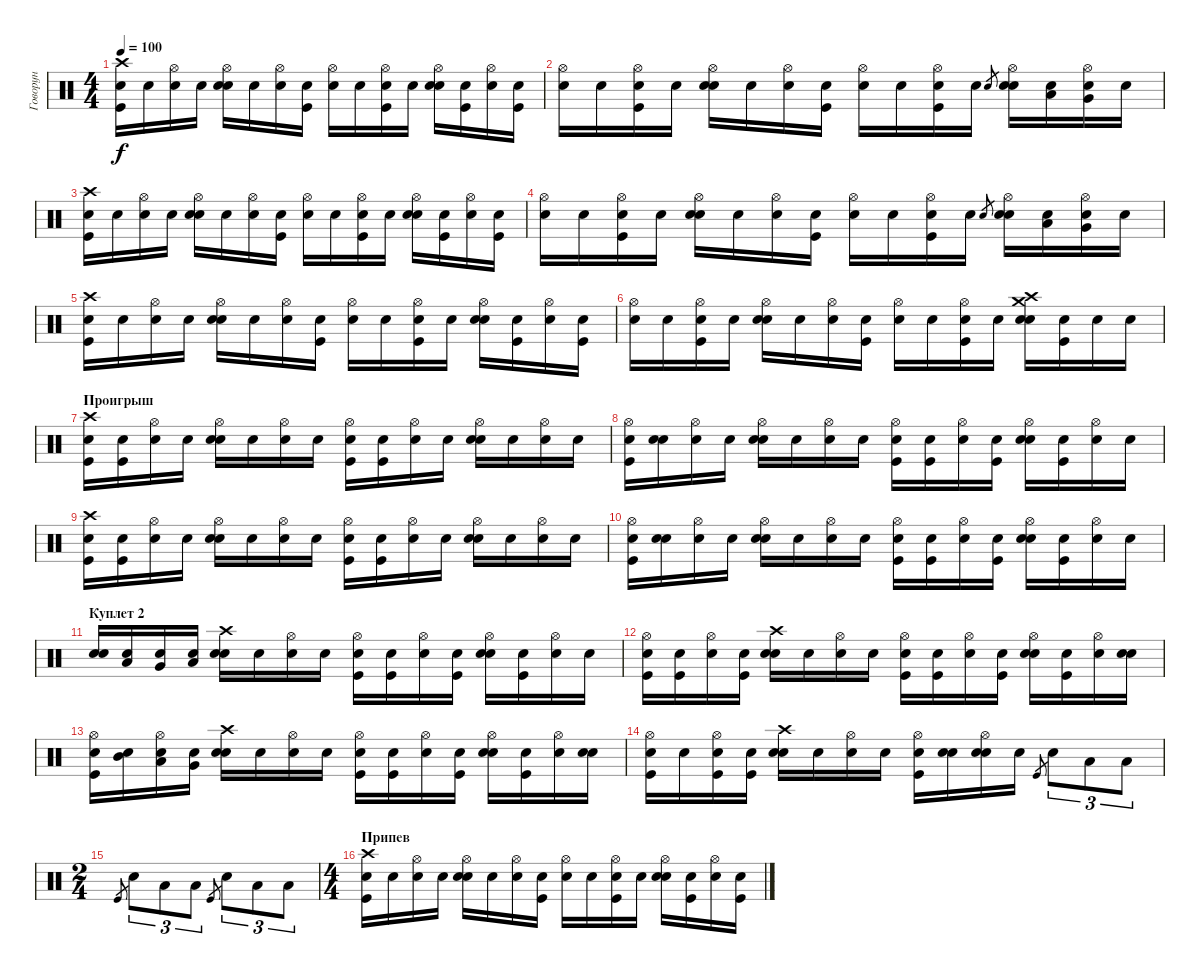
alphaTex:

\track ("Говорун" "Говорун") {instrument percussion}
\staff {score}
\articulation defaults
\ts (4 4)
\tempo 100
\clef neutral
\ks c
("Kick (hit)" "Crash high (hit)" "Snare (hit)"{x}).16{dy f} "Snare (hit)"{x}.16 ("Hi-Hat (open)" "Snare (hit)"{x}).16 "Snare (hit)"{x}.16 ("Snare (hit) 2" "Hi-Hat (open)" "Snare (hit)"{x}).16 "Snare (hit)"{x}.16 ("Hi-Hat (open)" "Snare (hit)"{x}).16 ("Kick (hit)" "Snare (hit)"{x}).16 ("Hi-Hat (open)" "Snare (hit)"{x}).16 "Snare (hit)"{x}.16 ("Kick (hit)" "Hi-Hat (open)" "Snare (hit)"{x}).16 "Snare (hit)"{x}.16 ("Snare (hit) 2" "Hi-Hat (open)" "Snare (hit)"{x}).16 ("Kick (hit)" "Snare (hit)"{x}).16 ("Hi-Hat (open)" "Snare (hit)"{x}).16 ("Kick (hit)" "Snare (hit)"{x}).16 |
("Hi-Hat (open)" "Snare (hit)"{x}).16 "Snare (hit)"{x}.16 ("Kick (hit)" "Hi-Hat (open)" "Snare (hit)"{x}).16 "Snare (hit)"{x}.16 ("Snare (hit) 2" "Hi-Hat (open)" "Snare (hit)"{x}).16 "Snare (hit)"{x}.16 ("Hi-Hat (open)" "Snare (hit)"{x}).16 ("Kick (hit)" "Snare (hit)"{x}).16 ("Hi-Hat (open)" "Snare (hit)"{x}).16 "Snare (hit)"{x}.16 ("Kick (hit)" "Hi-Hat (open)" "Snare (hit)"{x}).16 "Snare (hit)"{x}.16 "Snare (hit) 2".8{gr} ("Snare (hit) 2" "Hi-Hat (open)" "Snare (hit)"{x}).16 ("Low Tom (hit)" "Snare (hit)"{x}).16 ("Very Low Tom (hit)" "Hi-Hat (open)" "Snare (hit)"{x}).16 "Snare (hit)"{x}.16 |
("Kick (hit)" "Crash high (hit)" "Snare (hit)"{x}).16 "Snare (hit)"{x}.16 ("Hi-Hat (open)" "Snare (hit)"{x}).16 "Snare (hit)"{x}.16 ("Snare (hit) 2" "Hi-Hat (open)" "Snare (hit)"{x}).16 "Snare (hit)"{x}.16 ("Hi-Hat (open)" "Snare (hit)"{x}).16 ("Kick (hit)" "Snare (hit)"{x}).16 ("Hi-Hat (open)" "Snare (hit)"{x}).16 "Snare (hit)"{x}.16 ("Kick (hit)" "Hi-Hat (open)" "Snare (hit)"{x}).16 "Snare (hit)"{x}.16 ("Snare (hit) 2" "Hi-Hat (open)" "Snare (hit)"{x}).16 ("Kick (hit)" "Snare (hit)"{x}).16 ("Hi-Hat (open)" "Snare (hit)"{x}).16 ("Kick (hit)" "Snare (hit)"{x}).16 |
("Hi-Hat (open)" "Snare (hit)"{x}).16 "Snare (hit)"{x}.16 ("Kick (hit)" "Hi-Hat (open)" "Snare (hit)"{x}).16 "Snare (hit)"{x}.16 ("Snare (hit) 2" "Hi-Hat (open)" "Snare (hit)"{x}).16 "Snare (hit)"{x}.16 ("Hi-Hat (open)" "Snare (hit)"{x}).16 ("Kick (hit)" "Snare (hit)"{x}).16 ("Hi-Hat (open)" "Snare (hit)"{x}).16 "Snare (hit)"{x}.16 ("Kick (hit)" "Hi-Hat (open)" "Snare (hit)"{x}).16 "Snare (hit)"{x}.16 "Snare (hit) 2".8{gr} ("Snare (hit) 2" "Hi-Hat (open)" "Snare (hit)"{x}).16 ("Low Tom (hit)" "Snare (hit)"{x}).16 ("Very Low Tom (hit)" "Hi-Hat (open)" "Snare (hit)"{x}).16 "Snare (hit)"{x}.16 |
("Kick (hit)" "Crash high (hit)" "Snare (hit)"{x}).16 "Snare (hit)"{x}.16 ("Hi-Hat (open)" "Snare (hit)"{x}).16 "Snare (hit)"{x}.16 ("Snare (hit) 2" "Hi-Hat (open)" "Snare (hit)"{x}).16 "Snare (hit)"{x}.16 ("Hi-Hat (open)" "Snare (hit)"{x}).16 ("Kick (hit)" "Snare (hit)"{x}).16 ("Hi-Hat (open)" "Snare (hit)"{x}).16 "Snare (hit)"{x}.16 ("Kick (hit)" "Hi-Hat (open)" "Snare (hit)"{x}).16 "Snare (hit)"{x}.16 ("Snare (hit) 2" "Hi-Hat (open)" "Snare (hit)"{x}).16 ("Kick (hit)" "Snare (hit)"{x}).16 ("Hi-Hat (open)" "Snare (hit)"{x}).16 ("Kick (hit)" "Snare (hit)"{x}).16 |
("Hi-Hat (open)" "Snare (hit)"{x}).16 "Snare (hit)"{x}.16 ("Kick (hit)" "Hi-Hat (open)" "Snare (hit)"{x}).16 "Snare (hit)"{x}.16 ("Snare (hit) 2" "Hi-Hat (open)" "Snare (hit)"{x}).16 "Snare (hit)"{x}.16 ("Hi-Hat (open)" "Snare (hit)"{x}).16 ("Kick (hit)" "Snare (hit)"{x}).16 ("Hi-Hat (open)" "Snare (hit)"{x}).16 "Snare (hit)"{x}.16 ("Kick (hit)" "Hi-Hat (open)" "Snare (hit)"{x}).16 "Snare (hit)"{x}.16 ("Snare (hit) 2" "Crash medium (hit)" "Crash high (hit)" "Snare (hit)"{x}).16 ("Kick (hit)" "Snare (hit)"{x}).16 "Snare (hit)"{x}.16 "Snare (hit)"{x}.16 |
\section ("" "Проигрыш")
("Kick (hit)" "Crash high (hit)" "Snare (hit)"{x}).16 ("Kick (hit)" "Snare (hit)"{x}).16 ("Hi-Hat (open)" "Snare (hit)"{x}).16 "Snare (hit)"{x}.16 ("Snare (hit) 2" "Hi-Hat (open)" "Snare (hit)"{x}).16 "Snare (hit)"{x}.16 ("Hi-Hat (open)" "Snare (hit)"{x}).16 "Snare (hit)"{x}.16 ("Kick (hit)" "Hi-Hat (open)" "Snare (hit)"{x}).16 ("Kick (hit)" "Snare (hit)"{x}).16 ("Hi-Hat (open)" "Snare (hit)"{x}).16 "Snare (hit)"{x}.16 ("Snare (hit) 2" "Hi-Hat (open)" "Snare (hit)"{x}).16 "Snare (hit)"{x}.16 ("Hi-Hat (open)" "Snare (hit)"{x}).16 "Snare (hit)"{x}.16 |
("Kick (hit)" "Hi-Hat (open)" "Snare (hit)"{x}).16 ("Snare (hit) 2" "Snare (hit)"{x}).16 ("Hi-Hat (open)" "Snare (hit)"{x}).16 "Snare (hit)"{x}.16 ("Snare (hit) 2" "Hi-Hat (open)" "Snare (hit)"{x}).16 "Snare (hit)"{x}.16 ("Hi-Hat (open)" "Snare (hit)"{x}).16 "Snare (hit)"{x}.16 ("Kick (hit)" "Hi-Hat (open)" "Snare (hit)"{x}).16 ("Kick (hit)" "Snare (hit)"{x}).16 ("Hi-Hat (open)" "Snare (hit)"{x}).16 ("Kick (hit)" "Snare (hit)"{x}).16 ("Snare (hit) 2" "Hi-Hat (open)" "Snare (hit)"{x}).16 ("Kick (hit)" "Snare (hit)"{x}).16 ("Hi-Hat (open)" "Snare (hit)"{x}).16 "Snare (hit)"{x}.16 |
("Kick (hit)" "Crash high (hit)" "Snare (hit)"{x}).16 ("Kick (hit)" "Snare (hit)"{x}).16 ("Hi-Hat (open)" "Snare (hit)"{x}).16 "Snare (hit)"{x}.16 ("Snare (hit) 2" "Hi-Hat (open)" "Snare (hit)"{x}).16 "Snare (hit)"{x}.16 ("Hi-Hat (open)" "Snare (hit)"{x}).16 "Snare (hit)"{x}.16 ("Kick (hit)" "Hi-Hat (open)" "Snare (hit)"{x}).16 ("Kick (hit)" "Snare (hit)"{x}).16 ("Hi-Hat (open)" "Snare (hit)"{x}).16 "Snare (hit)"{x}.16 ("Snare (hit) 2" "Hi-Hat (open)" "Snare (hit)"{x}).16 "Snare (hit)"{x}.16 ("Hi-Hat (open)" "Snare (hit)"{x}).16 "Snare (hit)"{x}.16 |
("Kick (hit)" "Hi-Hat (open)" "Snare (hit)"{x}).16 ("Snare (hit) 2" "Snare (hit)"{x}).16 ("Hi-Hat (open)" "Snare (hit)"{x}).16 "Snare (hit)"{x}.16 ("Snare (hit) 2" "Hi-Hat (open)" "Snare (hit)"{x}).16 "Snare (hit)"{x}.16 ("Hi-Hat (open)" "Snare (hit)"{x}).16 "Snare (hit)"{x}.16 ("Kick (hit)" "Hi-Hat (open)" "Snare (hit)"{x}).16 ("Kick (hit)" "Snare (hit)"{x}).16 ("Hi-Hat (open)" "Snare (hit)"{x}).16 ("Kick (hit)" "Snare (hit)"{x}).16 ("Snare (hit) 2" "Hi-Hat (open)" "Snare (hit)"{x}).16 ("Kick (hit)" "Snare (hit)"{x}).16 ("Hi-Hat (open)" "Snare (hit)"{x}).16 "Snare (hit)"{x}.16 |
\section ("" "Куплет 2")
("Snare (hit) 2" "Snare (hit)"{x}).16 ("Low Tom (hit)" "Snare (hit)"{x}).16 ("Very Low Tom (hit)" "Snare (hit)"{x}).16 ("Low Floor Tom (hit)" "Snare (hit)"{x}).16 ("Crash high (hit)" "Snare (hit) 2" "Snare (hit)"{x}).16 "Snare (hit)"{x}.16 ("Hi-Hat (open)" "Snare (hit)"{x}).16 "Snare (hit)"{x}.16 ("Kick (hit)" "Hi-Hat (open)" "Snare (hit)"{x}).16 ("Kick (hit)" "Snare (hit)"{x}).16 ("Hi-Hat (open)" "Snare (hit)"{x}).16 ("Kick (hit)" "Snare (hit)"{x}).16 ("Snare (hit) 2" "Hi-Hat (open)" "Snare (hit)"{x}).16 ("Kick (hit)" "Snare (hit)"{x}).16 ("Hi-Hat (open)" "Snare (hit)"{x}).16 "Snare (hit)"{x}.16 |
("Kick (hit)" "Hi-Hat (open)" "Snare (hit)"{x}).16 ("Kick (hit)" "Snare (hit)"{x}).16 ("Hi-Hat (open)" "Snare (hit)"{x}).16 ("Kick (hit)" "Snare (hit)"{x}).16 ("Crash high (hit)" "Snare (hit) 2" "Snare (hit)"{x}).16 "Snare (hit)"{x}.16 ("Hi-Hat (open)" "Snare (hit)"{x}).16 "Snare (hit)"{x}.16 ("Kick (hit)" "Hi-Hat (open)" "Snare (hit)"{x}).16 ("Kick (hit)" "Snare (hit)"{x}).16 ("Hi-Hat (open)" "Snare (hit)"{x}).16 ("Kick (hit)" "Snare (hit)"{x}).16 ("Snare (hit) 2" "Hi-Hat (open)" "Snare (hit)"{x}).16 ("Kick (hit)" "Snare (hit)"{x}).16 ("Hi-Hat (open)" "Snare (hit)"{x}).16 ("Snare (hit) 2" "Snare (hit)"{x}).16 |
("Kick (hit)" "Hi-Hat (open)" "Snare (hit)"{x}).16 ("Mid Tom (hit)" "Snare (hit)"{x}).16 ("Low Tom (hit)" "Hi-Hat (open)" "Snare (hit)"{x}).16 ("Very Low Tom (hit)" "Snare (hit)"{x}).16 ("Crash high (hit)" "Snare (hit) 2" "Snare (hit)"{x}).16 "Snare (hit)"{x}.16 ("Hi-Hat (open)" "Snare (hit)"{x}).16 "Snare (hit)"{x}.16 ("Kick (hit)" "Hi-Hat (open)" "Snare (hit)"{x}).16 ("Kick (hit)" "Snare (hit)"{x}).16 ("Hi-Hat (open)" "Snare (hit)"{x}).16 ("Kick (hit)" "Snare (hit)"{x}).16 ("Snare (hit) 2" "Hi-Hat (open)" "Snare (hit)"{x}).16 ("Kick (hit)" "Snare (hit)"{x}).16 ("Hi-Hat (open)" "Snare (hit)"{x}).16 ("Snare (hit) 2" "Snare (hit)"{x}).16 |
("Kick (hit)" "Hi-Hat (open)" "Snare (hit)"{x}).16 "Snare (hit)"{x}.16 ("Kick (hit)" "Hi-Hat (open)" "Snare (hit)"{x}).16 ("Kick (hit)" "Snare (hit)"{x}).16 ("Crash high (hit)" "Snare (hit) 2" "Snare (hit)"{x}).16 "Snare (hit)"{x}.16 ("Hi-Hat (open)" "Snare (hit)"{x}).16 "Snare (hit)"{x}.16 ("Kick (hit)" "Hi-Hat (open)" "Snare (hit)"{x}).16 ("Snare (hit) 2" "Snare (hit)"{x}).16 ("Snare (hit) 2" "Hi-Hat (open)" "Snare (hit)"{x}).16 "Snare (hit)"{x}.16 "Kick (hit)".8{gr} "Snare (hit) 2".8{tu (3 2)} "Low Tom (hit)".8{tu (3 2)} "Low Tom (hit)".8{tu (3 2)} |
\ts (2 4)
"Kick (hit)".8{gr} "Snare (hit) 2".8{tu (3 2)} "Low Tom (hit)".8{tu (3 2)} "Low Tom (hit)".8{tu (3 2)} "Kick (hit)".8{gr} "Snare (hit) 2".8{tu (3 2)} "Low Tom (hit)".8{tu (3 2)} "Low Tom (hit)".8{tu (3 2)} |
\ts (4 4)
\section ("" "Припев")
("Kick (hit)" "Crash high (hit)" "Snare (hit)"{x}).16 "Snare (hit)"{x}.16 ("Hi-Hat (open)" "Snare (hit)"{x}).16 "Snare (hit)"{x}.16 ("Snare (hit) 2" "Hi-Hat (open)" "Snare (hit)"{x}).16 "Snare (hit)"{x}.16 ("Hi-Hat (open)" "Snare (hit)"{x}).16 ("Kick (hit)" "Snare (hit)"{x}).16 ("Hi-Hat (open)" "Snare (hit)"{x}).16 "Snare (hit)"{x}.16 ("Kick (hit)" "Hi-Hat (open)" "Snare (hit)"{x}).16 "Snare (hit)"{x}.16 ("Snare (hit) 2" "Hi-Hat (open)" "Snare (hit)"{x}).16 ("Kick (hit)" "Snare (hit)"{x}).16 ("Hi-Hat (open)" "Snare (hit)"{x}).16 ("Kick (hit)" "Snare (hit)"{x}).16
